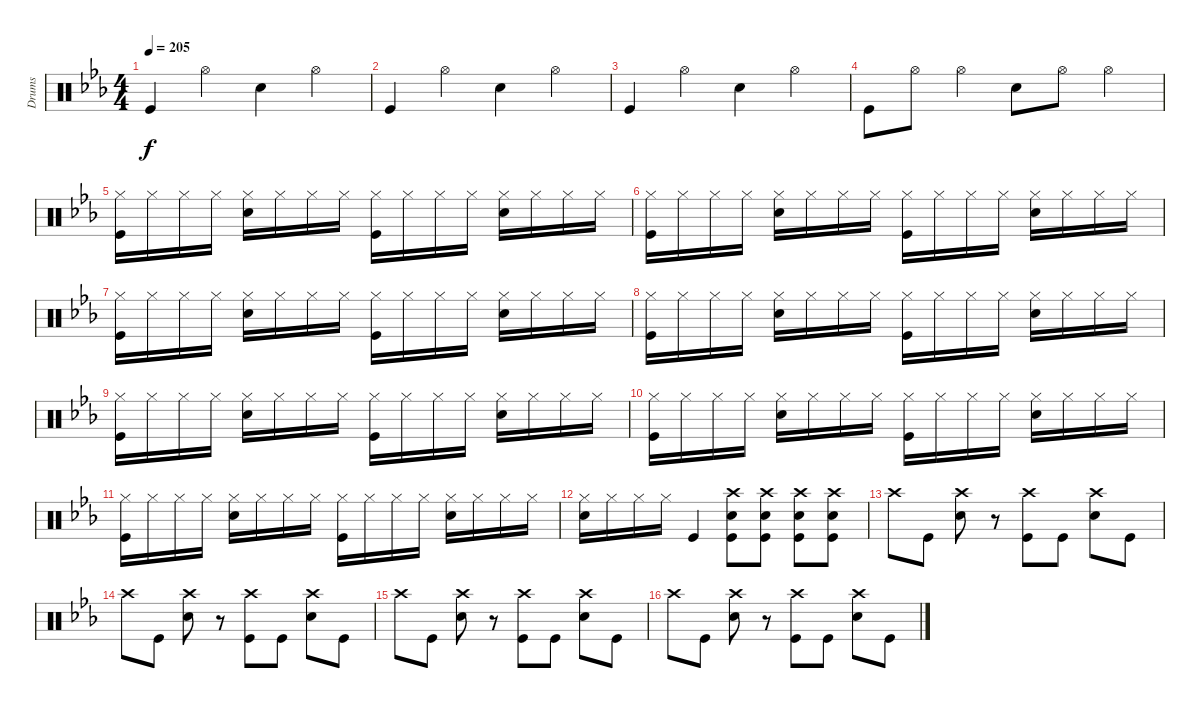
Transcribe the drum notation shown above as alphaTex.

\track ("Drums" "Drums") {instrument percussion}
\staff {score}
\articulation defaults
\ts (4 4)
\tempo 205
\clef neutral
\ks eb "Kick (hit)".4{dy f} "Hi-Hat (open)".4 "Snare (hit) 2".4 "Hi-Hat (open)".4
|
"Kick (hit)".4 "Hi-Hat (open)".4 "Snare (hit) 2".4 "Hi-Hat (open)".4 |
"Kick (hit)".4 "Hi-Hat (open)".4 "Snare (hit) 2".4 "Hi-Hat (open)".4 |
"Kick (hit)".8 "Hi-Hat (open)".8 "Hi-Hat (open)".4 "Snare (hit) 2".8 "Hi-Hat (open)".8 "Hi-Hat (open)".4 |
("Hi-Hat (closed)" "Kick (hit)").16 "Hi-Hat (closed)".16 "Hi-Hat (closed)".16 "Hi-Hat (closed)".16 ("Hi-Hat (closed)" "Snare (hit) 2").16 "Hi-Hat (closed)".16 "Hi-Hat (closed)".16 "Hi-Hat (closed)".16 ("Hi-Hat (closed)" "Kick (hit)").16 "Hi-Hat (closed)".16 "Hi-Hat (closed)".16 "Hi-Hat (closed)".16 ("Hi-Hat (closed)" "Snare (hit) 2").16 "Hi-Hat (closed)".16 "Hi-Hat (closed)".16 "Hi-Hat (closed)".16 |
("Hi-Hat (closed)" "Kick (hit)").16 "Hi-Hat (closed)".16 "Hi-Hat (closed)".16 "Hi-Hat (closed)".16 ("Hi-Hat (closed)" "Snare (hit) 2").16 "Hi-Hat (closed)".16 "Hi-Hat (closed)".16 "Hi-Hat (closed)".16 ("Hi-Hat (closed)" "Kick (hit)").16 "Hi-Hat (closed)".16 "Hi-Hat (closed)".16 "Hi-Hat (closed)".16 ("Hi-Hat (closed)" "Snare (hit) 2").16 "Hi-Hat (closed)".16 "Hi-Hat (closed)".16 "Hi-Hat (closed)".16 |
("Hi-Hat (closed)" "Kick (hit)").16 "Hi-Hat (closed)".16 "Hi-Hat (closed)".16 "Hi-Hat (closed)".16 ("Hi-Hat (closed)" "Snare (hit) 2").16 "Hi-Hat (closed)".16 "Hi-Hat (closed)".16 "Hi-Hat (closed)".16 ("Hi-Hat (closed)" "Kick (hit)").16 "Hi-Hat (closed)".16 "Hi-Hat (closed)".16 "Hi-Hat (closed)".16 ("Hi-Hat (closed)" "Snare (hit) 2").16 "Hi-Hat (closed)".16 "Hi-Hat (closed)".16 "Hi-Hat (closed)".16 |
("Hi-Hat (closed)" "Kick (hit)").16 "Hi-Hat (closed)".16 "Hi-Hat (closed)".16 "Hi-Hat (closed)".16 ("Hi-Hat (closed)" "Snare (hit) 2").16 "Hi-Hat (closed)".16 "Hi-Hat (closed)".16 "Hi-Hat (closed)".16 ("Hi-Hat (closed)" "Kick (hit)").16 "Hi-Hat (closed)".16 "Hi-Hat (closed)".16 "Hi-Hat (closed)".16 ("Hi-Hat (closed)" "Snare (hit) 2").16 "Hi-Hat (closed)".16 "Hi-Hat (closed)".16 "Hi-Hat (closed)".16 |
("Hi-Hat (closed)" "Kick (hit)").16 "Hi-Hat (closed)".16 "Hi-Hat (closed)".16 "Hi-Hat (closed)".16 ("Hi-Hat (closed)" "Snare (hit) 2").16 "Hi-Hat (closed)".16 "Hi-Hat (closed)".16 "Hi-Hat (closed)".16 ("Hi-Hat (closed)" "Kick (hit)").16 "Hi-Hat (closed)".16 "Hi-Hat (closed)".16 "Hi-Hat (closed)".16 ("Hi-Hat (closed)" "Snare (hit) 2").16 "Hi-Hat (closed)".16 "Hi-Hat (closed)".16 "Hi-Hat (closed)".16 |
("Hi-Hat (closed)" "Kick (hit)").16 "Hi-Hat (closed)".16 "Hi-Hat (closed)".16 "Hi-Hat (closed)".16 ("Hi-Hat (closed)" "Snare (hit) 2").16 "Hi-Hat (closed)".16 "Hi-Hat (closed)".16 "Hi-Hat (closed)".16 ("Hi-Hat (closed)" "Kick (hit)").16 "Hi-Hat (closed)".16 "Hi-Hat (closed)".16 "Hi-Hat (closed)".16 ("Hi-Hat (closed)" "Snare (hit) 2").16 "Hi-Hat (closed)".16 "Hi-Hat (closed)".16 "Hi-Hat (closed)".16 |
("Hi-Hat (closed)" "Kick (hit)").16 "Hi-Hat (closed)".16 "Hi-Hat (closed)".16 "Hi-Hat (closed)".16 ("Hi-Hat (closed)" "Snare (hit) 2").16 "Hi-Hat (closed)".16 "Hi-Hat (closed)".16 "Hi-Hat (closed)".16 ("Hi-Hat (closed)" "Kick (hit)").16 "Hi-Hat (closed)".16 "Hi-Hat (closed)".16 "Hi-Hat (closed)".16 ("Hi-Hat (closed)" "Snare (hit) 2").16 "Hi-Hat (closed)".16 "Hi-Hat (closed)".16 "Hi-Hat (closed)".16 |
("Hi-Hat (closed)" "Snare (hit) 2").16 "Hi-Hat (closed)".16 "Hi-Hat (closed)".16 "Hi-Hat (closed)".16 "Kick (hit)".4 ("Crash high (hit)" "Snare (hit) 2" "Kick (hit)").8 ("Crash high (hit)" "Snare (hit) 2" "Kick (hit)").8 ("Crash high (hit)" "Snare (hit) 2" "Kick (hit)").8 ("Crash high (hit)" "Snare (hit) 2" "Kick (hit)").8 |
"Crash high (hit)".8 "Kick (hit)".8 ("Crash high (hit)" "Snare (hit) 2").8 r.8 ("Crash high (hit)" "Kick (hit)").8 "Kick (hit)".8 ("Crash high (hit)" "Snare (hit) 2").8 "Kick (hit)".8 |
"Crash high (hit)".8 "Kick (hit)".8 ("Crash high (hit)" "Snare (hit) 2").8 r.8 ("Crash high (hit)" "Kick (hit)").8 "Kick (hit)".8 ("Crash high (hit)" "Snare (hit) 2").8 "Kick (hit)".8 |
"Crash high (hit)".8 "Kick (hit)".8 ("Crash high (hit)" "Snare (hit) 2").8 r.8 ("Crash high (hit)" "Kick (hit)").8 "Kick (hit)".8 ("Crash high (hit)" "Snare (hit) 2").8 "Kick (hit)".8 |
"Crash high (hit)".8 "Kick (hit)".8 ("Crash high (hit)" "Snare (hit) 2").8 r.8 ("Crash high (hit)" "Kick (hit)").8 "Kick (hit)".8 ("Crash high (hit)" "Snare (hit) 2").8 "Kick (hit)".8
